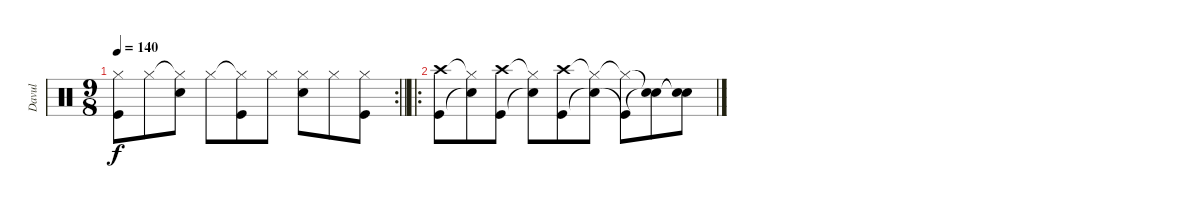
\track ("Davul" "Davul") {instrument percussion}
\staff {score}
\articulation defaults
\rc 2
\ts (9 8)
\tempo 140
\clef neutral
\barLineRight lightlight
\ks c
("Hi-Hat (closed)" "Kick (hit)").8{dy f} "Hi-Hat (closed)".8 ("Hi-Hat (closed)"{t} "Snare (hit) 2").8 "Hi-Hat (closed)".8 ("Hi-Hat (closed)"{t} "Kick (hit)").8 "Hi-Hat (closed)".8 ("Hi-Hat (closed)" "Snare (hit) 2").8 "Hi-Hat (closed)".8 ("Hi-Hat (closed)" "Kick (hit)").8 |
\ro
("Crash high (hit)" "Kick (hit)").8 ("Hi-Hat (closed)"{t} "Snare (hit)"{t}).8 ("Crash high (hit)" "Kick (hit)").8 ("Hi-Hat (closed)"{t} "Snare (hit)"{t}).8 ("Crash high (hit)" "Kick (hit)").8 ("Hi-Hat (closed)"{t} "Snare (hit)"{t}).8 ("Hi-Hat (closed)"{t} "Kick (hit)"{t}).8 ("Snare (hit)"{t} "Snare (hit)"{t}).8 ("Snare (hit)"{t} "Snare (hit)"{t}).8
